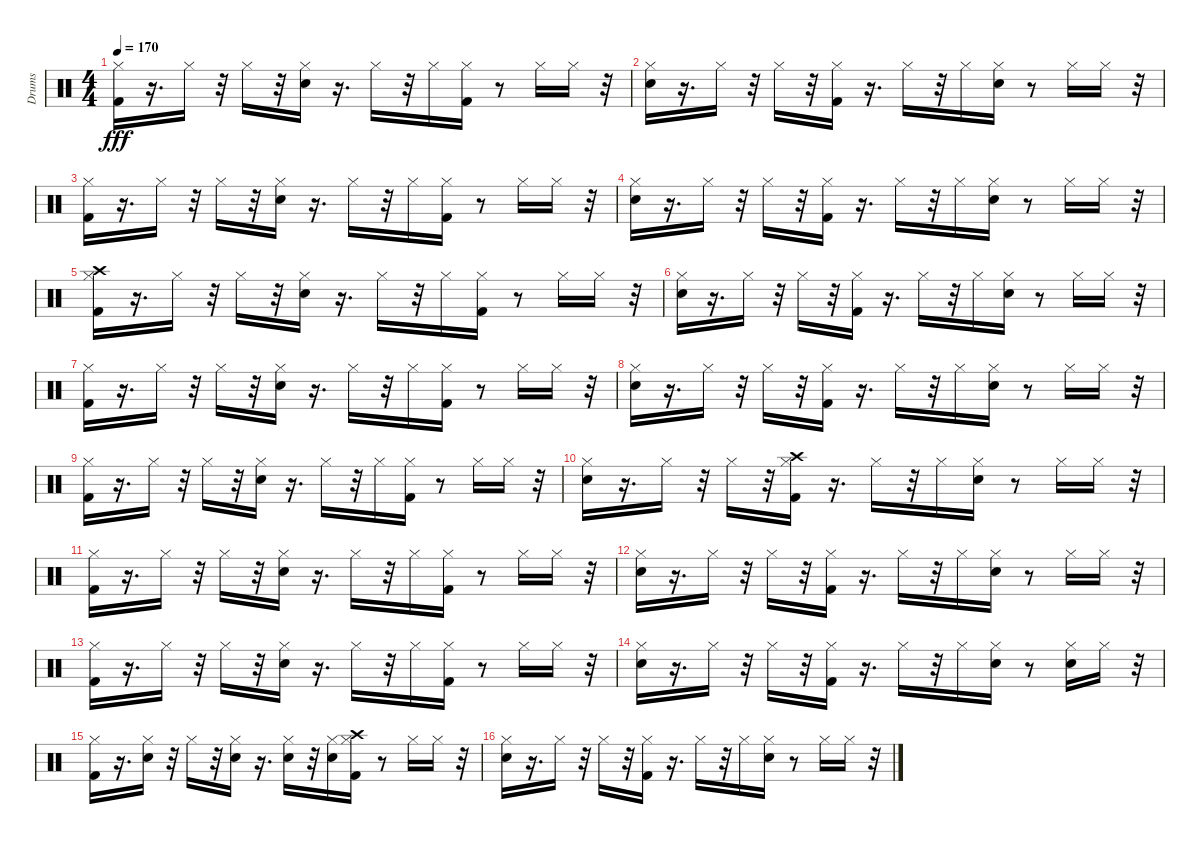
\track ("Drums" "Drums") {instrument percussion}
\staff {score}
\articulation defaults
\ts (4 4)
\tempo 170
\clef neutral
\ks c
("Kick (hit) 2" "Hi-Hat (closed)").16{dy fff} r.16{d} "Hi-Hat (closed)".16 r.32 "Hi-Hat (closed)".16 r.32 ("Snare (hit) 2" "Hi-Hat (closed)").16 r.16{d} "Hi-Hat (closed)".16 r.32 "Hi-Hat (closed)".16 ("Kick (hit) 2" "Hi-Hat (closed)").16 r.8 "Hi-Hat (closed)".16 "Hi-Hat (closed)".16 r.32 |
("Snare (hit) 2" "Hi-Hat (closed)").16 r.16{d} "Hi-Hat (closed)".16 r.32 "Hi-Hat (closed)".16 r.32 ("Kick (hit) 2" "Hi-Hat (closed)").16 r.16{d} "Hi-Hat (closed)".16 r.32 "Hi-Hat (closed)".16 ("Snare (hit) 2" "Hi-Hat (closed)").16 r.8 "Hi-Hat (closed)".16 "Hi-Hat (closed)".16 r.32 |
("Kick (hit) 2" "Hi-Hat (closed)").16 r.16{d} "Hi-Hat (closed)".16 r.32 "Hi-Hat (closed)".16 r.32 ("Snare (hit) 2" "Hi-Hat (closed)").16 r.16{d} "Hi-Hat (closed)".16 r.32 "Hi-Hat (closed)".16 ("Kick (hit) 2" "Hi-Hat (closed)").16 r.8 "Hi-Hat (closed)".16 "Hi-Hat (closed)".16 r.32 |
("Snare (hit) 2" "Hi-Hat (closed)").16 r.16{d} "Hi-Hat (closed)".16 r.32 "Hi-Hat (closed)".16 r.32 ("Kick (hit) 2" "Hi-Hat (closed)").16 r.16{d} "Hi-Hat (closed)".16 r.32 "Hi-Hat (closed)".16 ("Snare (hit) 2" "Hi-Hat (closed)").16 r.8 "Hi-Hat (closed)".16 "Hi-Hat (closed)".16 r.32 |
("Kick (hit) 2" "Hi-Hat (closed)" "Crash high (hit)").16 r.16{d} "Hi-Hat (closed)".16 r.32 "Hi-Hat (closed)".16 r.32 ("Snare (hit) 2" "Hi-Hat (closed)").16 r.16{d} "Hi-Hat (closed)".16 r.32 "Hi-Hat (closed)".16 ("Kick (hit) 2" "Hi-Hat (closed)").16 r.8 "Hi-Hat (closed)".16 "Hi-Hat (closed)".16 r.32 |
("Snare (hit) 2" "Hi-Hat (closed)").16 r.16{d} "Hi-Hat (closed)".16 r.32 "Hi-Hat (closed)".16 r.32 ("Kick (hit) 2" "Hi-Hat (closed)").16 r.16{d} "Hi-Hat (closed)".16 r.32 "Hi-Hat (closed)".16 ("Snare (hit) 2" "Hi-Hat (closed)").16 r.8 "Hi-Hat (closed)".16 "Hi-Hat (closed)".16 r.32 |
("Kick (hit) 2" "Hi-Hat (closed)").16 r.16{d} "Hi-Hat (closed)".16 r.32 "Hi-Hat (closed)".16 r.32 ("Snare (hit) 2" "Hi-Hat (closed)").16 r.16{d} "Hi-Hat (closed)".16 r.32 "Hi-Hat (closed)".16 ("Kick (hit) 2" "Hi-Hat (closed)").16 r.8 "Hi-Hat (closed)".16 "Hi-Hat (closed)".16 r.32 |
("Snare (hit) 2" "Hi-Hat (closed)").16 r.16{d} "Hi-Hat (closed)".16 r.32 "Hi-Hat (closed)".16 r.32 ("Kick (hit) 2" "Hi-Hat (closed)").16 r.16{d} "Hi-Hat (closed)".16 r.32 "Hi-Hat (closed)".16 ("Snare (hit) 2" "Hi-Hat (closed)").16 r.8 "Hi-Hat (closed)".16 "Hi-Hat (closed)".16 r.32 |
("Kick (hit) 2" "Hi-Hat (closed)").16 r.16{d} "Hi-Hat (closed)".16 r.32 "Hi-Hat (closed)".16 r.32 ("Snare (hit) 2" "Hi-Hat (closed)").16 r.16{d} "Hi-Hat (closed)".16 r.32 "Hi-Hat (closed)".16 ("Kick (hit) 2" "Hi-Hat (closed)").16 r.8 "Hi-Hat (closed)".16 "Hi-Hat (closed)".16 r.32 |
("Snare (hit) 2" "Hi-Hat (closed)").16 r.16{d} "Hi-Hat (closed)".16 r.32 "Hi-Hat (closed)".16 r.32 ("Kick (hit) 2" "Hi-Hat (closed)" "Crash high (hit)").16 r.16{d} "Hi-Hat (closed)".16 r.32 "Hi-Hat (closed)".16 ("Snare (hit) 2" "Hi-Hat (closed)").16 r.8 "Hi-Hat (closed)".16 "Hi-Hat (closed)".16 r.32 |
("Kick (hit) 2" "Hi-Hat (closed)").16 r.16{d} "Hi-Hat (closed)".16 r.32 "Hi-Hat (closed)".16 r.32 ("Snare (hit) 2" "Hi-Hat (closed)").16 r.16{d} "Hi-Hat (closed)".16 r.32 "Hi-Hat (closed)".16 ("Kick (hit) 2" "Hi-Hat (closed)").16 r.8 "Hi-Hat (closed)".16 "Hi-Hat (closed)".16 r.32 |
("Snare (hit) 2" "Hi-Hat (closed)").16 r.16{d} "Hi-Hat (closed)".16 r.32 "Hi-Hat (closed)".16 r.32 ("Kick (hit) 2" "Hi-Hat (closed)").16 r.16{d} "Hi-Hat (closed)".16 r.32 "Hi-Hat (closed)".16 ("Snare (hit) 2" "Hi-Hat (closed)").16 r.8 "Hi-Hat (closed)".16 "Hi-Hat (closed)".16 r.32 |
("Kick (hit) 2" "Hi-Hat (closed)").16 r.16{d} "Hi-Hat (closed)".16 r.32 "Hi-Hat (closed)".16 r.32 ("Snare (hit) 2" "Hi-Hat (closed)").16 r.16{d} "Hi-Hat (closed)".16 r.32 "Hi-Hat (closed)".16 ("Kick (hit) 2" "Hi-Hat (closed)").16 r.8 "Hi-Hat (closed)".16 "Hi-Hat (closed)".16 r.32 |
("Snare (hit) 2" "Hi-Hat (closed)").16 r.16{d} "Hi-Hat (closed)".16 r.32 "Hi-Hat (closed)".16 r.32 ("Kick (hit) 2" "Hi-Hat (closed)").16 r.16{d} "Hi-Hat (closed)".16 r.32 "Hi-Hat (closed)".16 ("Snare (hit) 2" "Hi-Hat (closed)").16 r.8 ("Hi-Hat (closed)" "Snare (hit) 2").16 "Hi-Hat (closed)".16 r.32 |
("Kick (hit) 2" "Hi-Hat (closed)").16 r.16{d} ("Hi-Hat (closed)" "Snare (hit) 2").16 r.32 "Hi-Hat (closed)".16 r.32 ("Snare (hit) 2" "Hi-Hat (closed)").16 r.16{d} ("Hi-Hat (closed)" "Snare (hit) 2").16 r.32 ("Hi-Hat (closed)" "Snare (hit) 2").16 ("Kick (hit) 2" "Hi-Hat (closed)" "Crash high (hit)").16 r.8 "Hi-Hat (closed)".16 "Hi-Hat (closed)".16 r.32 |
("Snare (hit) 2" "Hi-Hat (closed)").16 r.16{d} "Hi-Hat (closed)".16 r.32 "Hi-Hat (closed)".16 r.32 ("Kick (hit) 2" "Hi-Hat (closed)").16 r.16{d} "Hi-Hat (closed)".16 r.32 "Hi-Hat (closed)".16 ("Snare (hit) 2" "Hi-Hat (closed)").16 r.8 "Hi-Hat (closed)".16 "Hi-Hat (closed)".16 r.32
